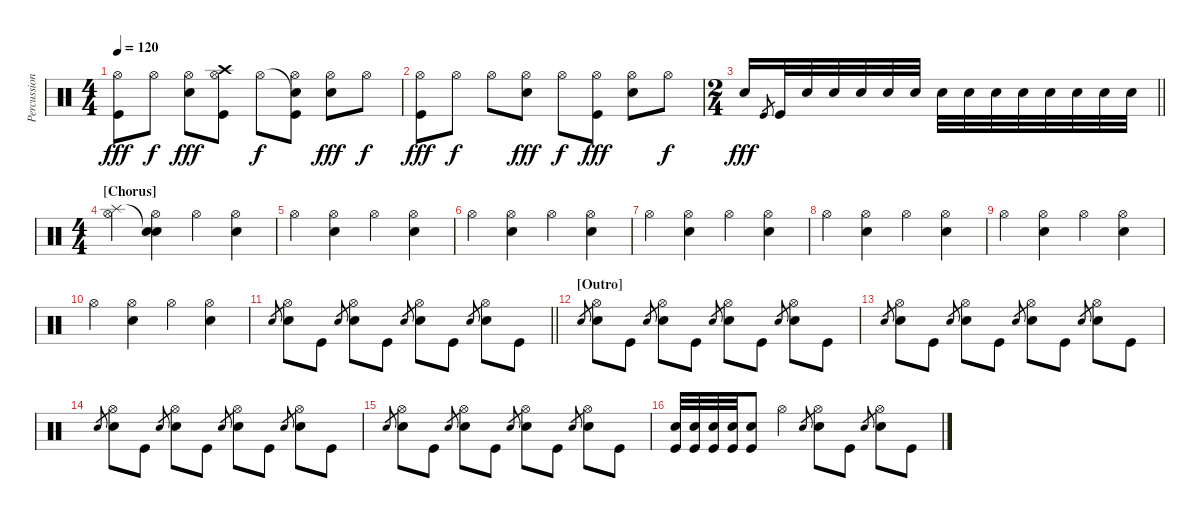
\track ("Percussion" "Percussion") {instrument percussion}
\staff {score}
\articulation defaults
\ts (4 4)
\tempo 120
\clef neutral
\ks c
("Hi-Hat (open)" "Kick (hit)").8{dy fff} "Hi-Hat (open)".8{dy f} ("Hi-Hat (open)" "Snare (hit) 2").8{dy fff} ("Crash high (hit)" "Hi-Hat (open)" "Kick (hit)").8 "Hi-Hat (open)".8{dy f} ("Snare (hit)"{t} "Hi-Hat (open)" "Kick (hit)").8 ("Hi-Hat (open)" "Snare (hit) 2").8{dy fff} "Hi-Hat (open)".8{dy f} |
("Hi-Hat (open)" "Kick (hit)").8{dy fff} "Hi-Hat (open)".8{dy f} "Hi-Hat (open)".8 ("Hi-Hat (open)" "Snare (hit) 2").8{dy fff} "Hi-Hat (open)".8{dy f} ("Hi-Hat (open)" "Kick (hit)").8{dy fff} ("Hi-Hat (open)" "Snare (hit) 2").8 "Hi-Hat (open)".8{dy f} |
\ts (2 4)
\barLineRight lightlight "Snare (hit) 2".16{dy fff} "Kick (hit)".8{gr} "Kick (hit)".32 "Snare (hit) 2".32 "Snare (hit) 2".32 "Snare (hit) 2".32 "Snare (hit) 2".32 "Snare (hit) 2".32 "Snare (hit) 2".32 "Snare (hit) 2".32 "Snare (hit) 2".32 "Snare (hit) 2".32 "Snare (hit) 2".32 "Snare (hit) 2".32 "Snare (hit) 2".32 "Snare (hit) 2".32
|
\ts (4 4)
\section ("" "[Chorus]")
("Splash (hit)" "Hi-Hat (open)").4 ("Snare (hit)"{t} "Hi-Hat (open)" "Snare (hit) 2").4 "Hi-Hat (open)".4 ("Hi-Hat (open)" "Snare (hit) 2").4 |
"Hi-Hat (open)".4 ("Hi-Hat (open)" "Snare (hit) 2").4 "Hi-Hat (open)".4 ("Hi-Hat (open)" "Snare (hit) 2").4 |
"Hi-Hat (open)".4 ("Hi-Hat (open)" "Snare (hit) 2").4 "Hi-Hat (open)".4 ("Hi-Hat (open)" "Snare (hit) 2").4 |
"Hi-Hat (open)".4 ("Hi-Hat (open)" "Snare (hit) 2").4 "Hi-Hat (open)".4 ("Hi-Hat (open)" "Snare (hit) 2").4 |
"Hi-Hat (open)".4 ("Hi-Hat (open)" "Snare (hit) 2").4 "Hi-Hat (open)".4 ("Hi-Hat (open)" "Snare (hit) 2").4 |
"Hi-Hat (open)".4 ("Hi-Hat (open)" "Snare (hit) 2").4 "Hi-Hat (open)".4 ("Hi-Hat (open)" "Snare (hit) 2").4 |
"Hi-Hat (open)".4 ("Hi-Hat (open)" "Snare (hit) 2").4 "Hi-Hat (open)".4 ("Hi-Hat (open)" "Snare (hit) 2").4 |
\barLineRight lightlight "Snare (hit) 2".8{gr}
("Hi-Hat (open)" "Snare (hit) 2").8 "Kick (hit)".8 "Snare (hit) 2".8{gr} ("Hi-Hat (open)" "Snare (hit) 2").8 "Kick (hit)".8 "Snare (hit) 2".8{gr} ("Hi-Hat (open)" "Snare (hit) 2").8 "Kick (hit)".8 "Snare (hit) 2".8{gr} ("Hi-Hat (open)" "Snare (hit) 2").8 "Kick (hit)".8 |
\section ("" "[Outro]")
"Snare (hit) 2".8{gr} ("Hi-Hat (open)" "Snare (hit) 2").8 "Kick (hit)".8 "Snare (hit) 2".8{gr} ("Hi-Hat (open)" "Snare (hit) 2").8 "Kick (hit)".8 "Snare (hit) 2".8{gr} ("Hi-Hat (open)" "Snare (hit) 2").8 "Kick (hit)".8 "Snare (hit) 2".8{gr} ("Hi-Hat (open)" "Snare (hit) 2").8 "Kick (hit)".8 |
"Snare (hit) 2".8{gr} ("Hi-Hat (open)" "Snare (hit) 2").8 "Kick (hit)".8 "Snare (hit) 2".8{gr} ("Hi-Hat (open)" "Snare (hit) 2").8 "Kick (hit)".8 "Snare (hit) 2".8{gr} ("Hi-Hat (open)" "Snare (hit) 2").8 "Kick (hit)".8 "Snare (hit) 2".8{gr} ("Hi-Hat (open)" "Snare (hit) 2").8 "Kick (hit)".8 |
"Snare (hit) 2".8{gr} ("Hi-Hat (open)" "Snare (hit) 2").8 "Kick (hit)".8 "Snare (hit) 2".8{gr} ("Hi-Hat (open)" "Snare (hit) 2").8 "Kick (hit)".8 "Snare (hit) 2".8{gr} ("Hi-Hat (open)" "Snare (hit) 2").8 "Kick (hit)".8 "Snare (hit) 2".8{gr} ("Hi-Hat (open)" "Snare (hit) 2").8 "Kick (hit)".8 |
"Snare (hit) 2".8{gr} ("Hi-Hat (open)" "Snare (hit) 2").8 "Kick (hit)".8 "Snare (hit) 2".8{gr} ("Hi-Hat (open)" "Snare (hit) 2").8 "Kick (hit)".8 "Snare (hit) 2".8{gr} ("Hi-Hat (open)" "Snare (hit) 2").8 "Kick (hit)".8 "Snare (hit) 2".8{gr} ("Hi-Hat (open)" "Snare (hit) 2").8 "Kick (hit)".8 |
("Kick (hit)" "Snare (hit) 2").32 ("Kick (hit)" "Snare (hit) 2").32 ("Kick (hit)" "Snare (hit) 2").32 ("Kick (hit)" "Snare (hit) 2").32 ("Kick (hit)" "Snare (hit) 2").8 "Hi-Hat (open)".4 "Snare (hit) 2".8{gr} ("Hi-Hat (open)" "Snare (hit) 2").8 "Kick (hit)".8 "Snare (hit) 2".8{gr} ("Hi-Hat (open)" "Snare (hit) 2").8 "Kick (hit)".8
